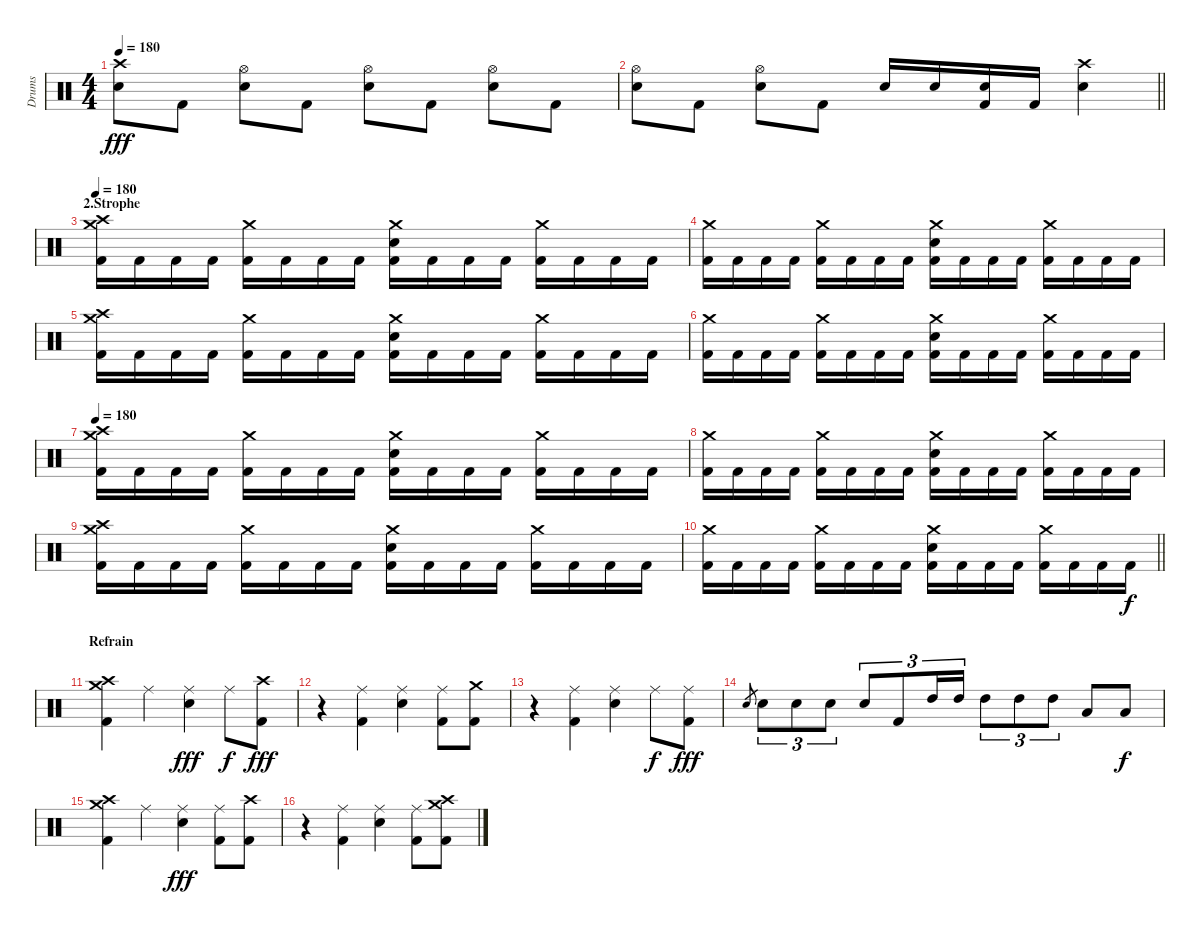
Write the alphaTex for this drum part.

\track ("Drums" "Drums") {instrument percussion}
\staff {score}
\articulation defaults
\ts (4 4)
\tempo 180
\clef neutral
\ks c
("Crash high (hit)" "Electric Snare (hit)").8{dy fff} "Kick (hit) 2".8 ("Hi-Hat (open)" "Electric Snare (hit)").8 "Kick (hit) 2".8 ("Hi-Hat (open)" "Electric Snare (hit)").8 "Kick (hit) 2".8 ("Hi-Hat (open)" "Electric Snare (hit)").8 "Kick (hit) 2".8 |
\barLineRight lightlight
("Hi-Hat (open)" "Electric Snare (hit)").8 "Kick (hit) 2".8 ("Hi-Hat (open)" "Electric Snare (hit)").8 "Kick (hit) 2".8 "Electric Snare (hit)".16 "Electric Snare (hit)".16 ("Electric Snare (hit)" "Kick (hit) 2").16 "Kick (hit) 2".16 ("Crash high (hit)" "Electric Snare (hit)").4 |
\section ("" "2.Strophe")
\tempo 180
("Crash medium (hit)" "Crash high (hit)" "Kick (hit) 2").16 "Kick (hit) 2".16 "Kick (hit) 2".16 "Kick (hit) 2".16 ("Crash medium (hit)" "Kick (hit) 2").16 "Kick (hit) 2".16 "Kick (hit) 2".16 "Kick (hit) 2".16 ("Crash medium (hit)" "Electric Snare (hit)" "Kick (hit) 2").16 "Kick (hit) 2".16 "Kick (hit) 2".16 "Kick (hit) 2".16 ("Crash medium (hit)" "Kick (hit) 2").16 "Kick (hit) 2".16 "Kick (hit) 2".16 "Kick (hit) 2".16 |
("Crash medium (hit)" "Kick (hit) 2").16 "Kick (hit) 2".16 "Kick (hit) 2".16 "Kick (hit) 2".16 ("Crash medium (hit)" "Kick (hit) 2").16 "Kick (hit) 2".16 "Kick (hit) 2".16 "Kick (hit) 2".16 ("Crash medium (hit)" "Electric Snare (hit)" "Kick (hit) 2").16 "Kick (hit) 2".16 "Kick (hit) 2".16 "Kick (hit) 2".16 ("Crash medium (hit)" "Kick (hit) 2").16 "Kick (hit) 2".16 "Kick (hit) 2".16 "Kick (hit) 2".16 |
("Crash medium (hit)" "Crash high (hit)" "Kick (hit) 2").16 "Kick (hit) 2".16 "Kick (hit) 2".16 "Kick (hit) 2".16 ("Crash medium (hit)" "Kick (hit) 2").16 "Kick (hit) 2".16 "Kick (hit) 2".16 "Kick (hit) 2".16 ("Crash medium (hit)" "Electric Snare (hit)" "Kick (hit) 2").16 "Kick (hit) 2".16 "Kick (hit) 2".16 "Kick (hit) 2".16 ("Crash medium (hit)" "Kick (hit) 2").16 "Kick (hit) 2".16 "Kick (hit) 2".16 "Kick (hit) 2".16 |
("Crash medium (hit)" "Kick (hit) 2").16 "Kick (hit) 2".16 "Kick (hit) 2".16 "Kick (hit) 2".16 ("Crash medium (hit)" "Kick (hit) 2").16 "Kick (hit) 2".16 "Kick (hit) 2".16 "Kick (hit) 2".16 ("Crash medium (hit)" "Electric Snare (hit)" "Kick (hit) 2").16 "Kick (hit) 2".16 "Kick (hit) 2".16 "Kick (hit) 2".16 ("Crash medium (hit)" "Kick (hit) 2").16 "Kick (hit) 2".16 "Kick (hit) 2".16 "Kick (hit) 2".16 |
\tempo 180
("Crash medium (hit)" "Crash high (hit)" "Kick (hit) 2").16 "Kick (hit) 2".16 "Kick (hit) 2".16 "Kick (hit) 2".16 ("Crash medium (hit)" "Kick (hit) 2").16 "Kick (hit) 2".16 "Kick (hit) 2".16 "Kick (hit) 2".16 ("Crash medium (hit)" "Electric Snare (hit)" "Kick (hit) 2").16 "Kick (hit) 2".16 "Kick (hit) 2".16 "Kick (hit) 2".16 ("Crash medium (hit)" "Kick (hit) 2").16 "Kick (hit) 2".16 "Kick (hit) 2".16 "Kick (hit) 2".16 |
("Crash medium (hit)" "Kick (hit) 2").16 "Kick (hit) 2".16 "Kick (hit) 2".16 "Kick (hit) 2".16 ("Crash medium (hit)" "Kick (hit) 2").16 "Kick (hit) 2".16 "Kick (hit) 2".16 "Kick (hit) 2".16 ("Crash medium (hit)" "Electric Snare (hit)" "Kick (hit) 2").16 "Kick (hit) 2".16 "Kick (hit) 2".16 "Kick (hit) 2".16 ("Crash medium (hit)" "Kick (hit) 2").16 "Kick (hit) 2".16 "Kick (hit) 2".16 "Kick (hit) 2".16 |
("Crash medium (hit)" "Crash high (hit)" "Kick (hit) 2").16 "Kick (hit) 2".16 "Kick (hit) 2".16 "Kick (hit) 2".16 ("Crash medium (hit)" "Kick (hit) 2").16 "Kick (hit) 2".16 "Kick (hit) 2".16 "Kick (hit) 2".16 ("Crash medium (hit)" "Electric Snare (hit)" "Kick (hit) 2").16 "Kick (hit) 2".16 "Kick (hit) 2".16 "Kick (hit) 2".16 ("Crash medium (hit)" "Kick (hit) 2").16 "Kick (hit) 2".16 "Kick (hit) 2".16 "Kick (hit) 2".16 |
\barLineRight lightlight
("Crash medium (hit)" "Kick (hit) 2").16 "Kick (hit) 2".16 "Kick (hit) 2".16 "Kick (hit) 2".16 ("Crash medium (hit)" "Kick (hit) 2").16 "Kick (hit) 2".16 "Kick (hit) 2".16 "Kick (hit) 2".16 ("Crash medium (hit)" "Electric Snare (hit)" "Kick (hit) 2").16 "Kick (hit) 2".16 "Kick (hit) 2".16 "Kick (hit) 2".16 ("Crash medium (hit)" "Kick (hit) 2").16 "Kick (hit) 2".16 "Kick (hit) 2".16 "Kick (hit) 2".16{dy f} |
\section ("" "Refrain")
("Crash medium (hit)" "Crash high (hit)" "Kick (hit) 2").4 "Ride (middle)".4 ("Ride (middle)" "Electric Snare (hit)").4{dy fff} "Ride (middle)".8{dy f} ("Crash high (hit)" "Kick (hit) 2").8{dy fff} |
r.4 ("Ride (middle)" "Kick (hit) 2").4 ("Ride (middle)" "Electric Snare (hit)").4 ("Ride (middle)" "Kick (hit) 2").8 ("Crash medium (hit)" "Kick (hit) 2").8 |
r.4 ("Ride (middle)" "Kick (hit) 2").4 ("Ride (middle)" "Electric Snare (hit)").4 "Ride (middle)".8{dy f} ("Ride (middle)" "Kick (hit) 2").8{dy fff} |
"Electric Snare (hit)".8{gr} "Electric Snare (hit)".8{tu (3 2)} "Electric Snare (hit)".8{tu (3 2)} "Electric Snare (hit)".8{tu (3 2)} "Electric Snare (hit)".8{tu (3 2)} "Kick (hit) 2".8{tu (3 2)} "High Tom (hit)".16{tu (3 2)} "High Tom (hit)".16{tu (3 2)} "High Tom (hit)".8{tu (3 2)} "High Tom (hit)".8{tu (3 2)} "High Tom (hit)".8{tu (3 2)} "Low Tom (hit)".8 "Low Tom (hit)".8{dy f} |
("Crash medium (hit)" "Crash high (hit)" "Kick (hit) 2").4 "Ride (middle)".4 ("Ride (middle)" "Electric Snare (hit)").4{dy fff} ("Ride (middle)" "Kick (hit) 2").8 ("Crash high (hit)" "Kick (hit) 2").8 |
r.4 ("Ride (middle)" "Kick (hit) 2").4 ("Ride (middle)" "Electric Snare (hit)").4 ("Ride (middle)" "Kick (hit) 2").8 ("Crash medium (hit)" "Crash high (hit)" "Kick (hit) 2").8
